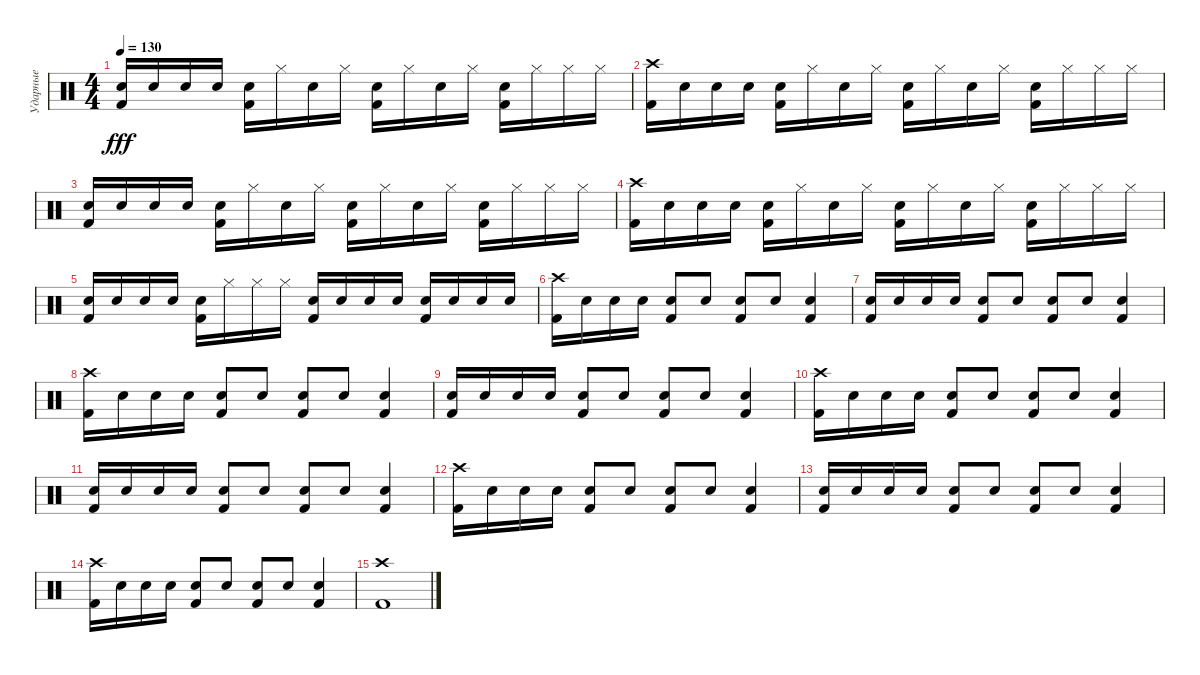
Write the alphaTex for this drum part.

\track ("Ударные" "Ударные") {instrument percussion}
\staff {score}
\articulation defaults
\ts (4 4)
\tempo 130
\clef neutral
\ks c
("Snare (hit) 2" "Kick (hit) 2").16{dy fff} "Snare (hit) 2".16 "Snare (hit) 2".16 "Snare (hit) 2".16 ("Snare (hit) 2" "Kick (hit) 2").16 "Hi-Hat (closed)".16 "Snare (hit) 2".16 "Hi-Hat (closed)".16 ("Snare (hit) 2" "Kick (hit) 2").16 "Hi-Hat (closed)".16 "Snare (hit) 2".16 "Hi-Hat (closed)".16 ("Snare (hit) 2" "Kick (hit) 2").16 "Hi-Hat (closed)".16 "Hi-Hat (closed)".16 "Hi-Hat (closed)".16 |
("Crash high (hit)" "Kick (hit) 2").16 "Snare (hit) 2".16 "Snare (hit) 2".16 "Snare (hit) 2".16 ("Snare (hit) 2" "Kick (hit) 2").16 "Hi-Hat (closed)".16 "Snare (hit) 2".16 "Hi-Hat (closed)".16 ("Snare (hit) 2" "Kick (hit) 2").16 "Hi-Hat (closed)".16 "Snare (hit) 2".16 "Hi-Hat (closed)".16 ("Snare (hit) 2" "Kick (hit) 2").16 "Hi-Hat (closed)".16 "Hi-Hat (closed)".16 "Hi-Hat (closed)".16 |
("Snare (hit) 2" "Kick (hit) 2").16 "Snare (hit) 2".16 "Snare (hit) 2".16 "Snare (hit) 2".16 ("Snare (hit) 2" "Kick (hit) 2").16 "Hi-Hat (closed)".16 "Snare (hit) 2".16 "Hi-Hat (closed)".16 ("Snare (hit) 2" "Kick (hit) 2").16 "Hi-Hat (closed)".16 "Snare (hit) 2".16 "Hi-Hat (closed)".16 ("Snare (hit) 2" "Kick (hit) 2").16 "Hi-Hat (closed)".16 "Hi-Hat (closed)".16 "Hi-Hat (closed)".16 |
("Crash high (hit)" "Kick (hit) 2").16 "Snare (hit) 2".16 "Snare (hit) 2".16 "Snare (hit) 2".16 ("Snare (hit) 2" "Kick (hit) 2").16 "Hi-Hat (closed)".16 "Snare (hit) 2".16 "Hi-Hat (closed)".16 ("Snare (hit) 2" "Kick (hit) 2").16 "Hi-Hat (closed)".16 "Snare (hit) 2".16 "Hi-Hat (closed)".16 ("Snare (hit) 2" "Kick (hit) 2").16 "Hi-Hat (closed)".16 "Hi-Hat (closed)".16 "Hi-Hat (closed)".16 |
("Snare (hit) 2" "Kick (hit) 2").16 "Snare (hit) 2".16 "Snare (hit) 2".16 "Snare (hit) 2".16 ("Snare (hit) 2" "Kick (hit) 2").16 "Hi-Hat (closed)".16 "Hi-Hat (closed)".16 "Hi-Hat (closed)".16 ("Snare (hit) 2" "Kick (hit) 2").16 "Snare (hit) 2".16 "Snare (hit) 2".16 "Snare (hit) 2".16 ("Snare (hit) 2" "Kick (hit) 2").16 "Snare (hit) 2".16 "Snare (hit) 2".16 "Snare (hit) 2".16 |
("Crash high (hit)" "Kick (hit) 2").16 "Snare (hit) 2".16 "Snare (hit) 2".16 "Snare (hit) 2".16 ("Snare (hit) 2" "Kick (hit) 2").8 "Snare (hit) 2".8 ("Snare (hit) 2" "Kick (hit) 2").8 "Snare (hit) 2".8 ("Snare (hit) 2" "Kick (hit) 2").4 |
("Snare (hit) 2" "Kick (hit) 2").16 "Snare (hit) 2".16 "Snare (hit) 2".16 "Snare (hit) 2".16 ("Snare (hit) 2" "Kick (hit) 2").8 "Snare (hit) 2".8 ("Snare (hit) 2" "Kick (hit) 2").8 "Snare (hit) 2".8 ("Snare (hit) 2" "Kick (hit) 2").4 |
("Crash high (hit)" "Kick (hit) 2").16 "Snare (hit) 2".16 "Snare (hit) 2".16 "Snare (hit) 2".16 ("Snare (hit) 2" "Kick (hit) 2").8 "Snare (hit) 2".8 ("Snare (hit) 2" "Kick (hit) 2").8 "Snare (hit) 2".8 ("Snare (hit) 2" "Kick (hit) 2").4 |
("Snare (hit) 2" "Kick (hit) 2").16 "Snare (hit) 2".16 "Snare (hit) 2".16 "Snare (hit) 2".16 ("Snare (hit) 2" "Kick (hit) 2").8 "Snare (hit) 2".8 ("Snare (hit) 2" "Kick (hit) 2").8 "Snare (hit) 2".8 ("Snare (hit) 2" "Kick (hit) 2").4 |
("Crash high (hit)" "Kick (hit) 2").16 "Snare (hit) 2".16 "Snare (hit) 2".16 "Snare (hit) 2".16 ("Snare (hit) 2" "Kick (hit) 2").8 "Snare (hit) 2".8 ("Snare (hit) 2" "Kick (hit) 2").8 "Snare (hit) 2".8 ("Snare (hit) 2" "Kick (hit) 2").4 |
("Snare (hit) 2" "Kick (hit) 2").16 "Snare (hit) 2".16 "Snare (hit) 2".16 "Snare (hit) 2".16 ("Snare (hit) 2" "Kick (hit) 2").8 "Snare (hit) 2".8 ("Snare (hit) 2" "Kick (hit) 2").8 "Snare (hit) 2".8 ("Snare (hit) 2" "Kick (hit) 2").4 |
("Crash high (hit)" "Kick (hit) 2").16 "Snare (hit) 2".16 "Snare (hit) 2".16 "Snare (hit) 2".16 ("Snare (hit) 2" "Kick (hit) 2").8 "Snare (hit) 2".8 ("Snare (hit) 2" "Kick (hit) 2").8 "Snare (hit) 2".8 ("Snare (hit) 2" "Kick (hit) 2").4 |
("Snare (hit) 2" "Kick (hit) 2").16 "Snare (hit) 2".16 "Snare (hit) 2".16 "Snare (hit) 2".16 ("Snare (hit) 2" "Kick (hit) 2").8 "Snare (hit) 2".8 ("Snare (hit) 2" "Kick (hit) 2").8 "Snare (hit) 2".8 ("Snare (hit) 2" "Kick (hit) 2").4 |
("Crash high (hit)" "Kick (hit) 2").16 "Snare (hit) 2".16 "Snare (hit) 2".16 "Snare (hit) 2".16 ("Snare (hit) 2" "Kick (hit) 2").8 "Snare (hit) 2".8 ("Snare (hit) 2" "Kick (hit) 2").8 "Snare (hit) 2".8 ("Snare (hit) 2" "Kick (hit) 2").4 |
("Crash high (hit)" "Kick (hit) 2").1
